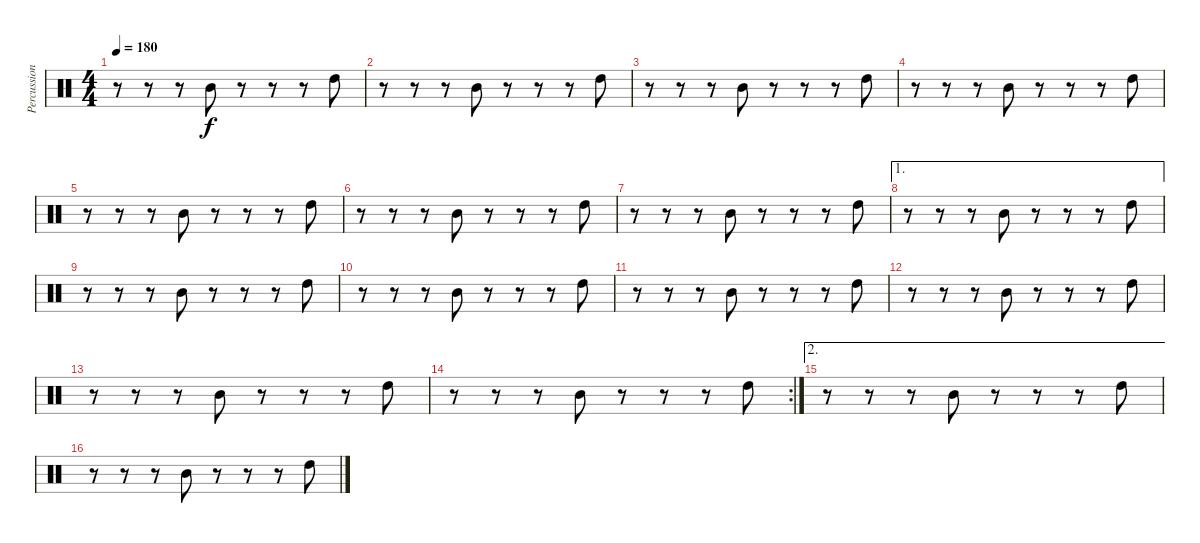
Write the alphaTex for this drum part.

\track ("Percussions" "Percussion") {instrument percussion}
\staff {score}
\articulation defaults
\ts (4 4)
\tempo 180
\clef neutral
\ks c
r.8{dy f} r.8 r.8 "Mid Tom (hit)".8 r.8 r.8 r.8 "High Tom (hit)".8 |
r.8 r.8 r.8 "Mid Tom (hit)".8 r.8 r.8 r.8 "High Tom (hit)".8 |
r.8 r.8 r.8 "Mid Tom (hit)".8 r.8 r.8 r.8 "High Tom (hit)".8 |
r.8 r.8 r.8 "Mid Tom (hit)".8 r.8 r.8 r.8 "High Tom (hit)".8 |
r.8 r.8 r.8 "Mid Tom (hit)".8 r.8 r.8 r.8 "High Tom (hit)".8 |
r.8 r.8 r.8 "Mid Tom (hit)".8 r.8 r.8 r.8 "High Tom (hit)".8 |
r.8 r.8 r.8 "Mid Tom (hit)".8 r.8 r.8 r.8 "High Tom (hit)".8 |
\ae 1
r.8 r.8 r.8 "Mid Tom (hit)".8 r.8 r.8 r.8 "High Tom (hit)".8 |
r.8 r.8 r.8 "Mid Tom (hit)".8 r.8 r.8 r.8 "High Tom (hit)".8 |
r.8 r.8 r.8 "Mid Tom (hit)".8 r.8 r.8 r.8 "High Tom (hit)".8 |
r.8 r.8 r.8 "Mid Tom (hit)".8 r.8 r.8 r.8 "High Tom (hit)".8 |
r.8 r.8 r.8 "Mid Tom (hit)".8 r.8 r.8 r.8 "High Tom (hit)".8 |
r.8 r.8 r.8 "Mid Tom (hit)".8 r.8 r.8 r.8 "High Tom (hit)".8 |
\rc 2
r.8 r.8 r.8 "Mid Tom (hit)".8 r.8 r.8 r.8 "High Tom (hit)".8 |
\ae 2
r.8 r.8 r.8 "Mid Tom (hit)".8 r.8 r.8 r.8 "High Tom (hit)".8 |
r.8 r.8 r.8 "Mid Tom (hit)".8 r.8 r.8 r.8 "High Tom (hit)".8
